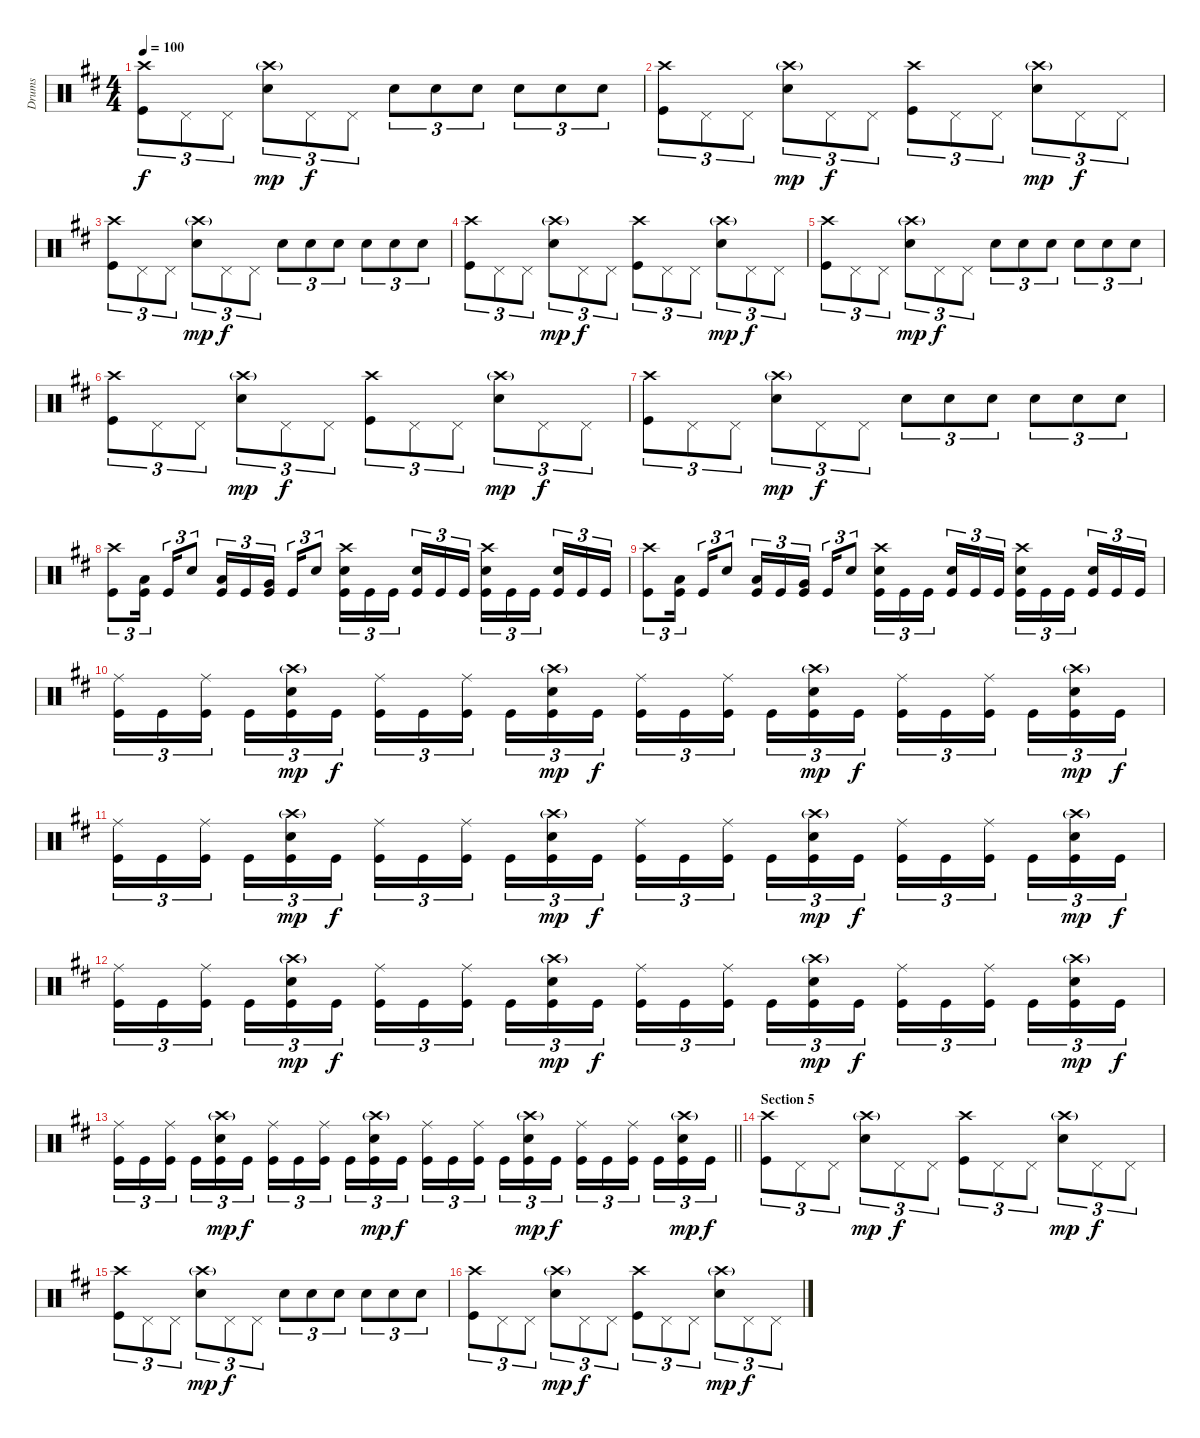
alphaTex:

\track ("Drums" "Drums") {instrument percussion}
\staff {score}
\articulation defaults
\ts (4 4)
\tempo 100
\clef neutral
\ks d
("Crash high (hit)" "Kick (hit)").8{tu (3 2) dy f} "Pedal Hi-Hat (hit)".8{tu (3 2)} "Pedal Hi-Hat (hit)".8{tu (3 2)} ("Crash high (hit)"{g} "Snare (hit) 2").8{tu (3 2) dy mp} "Pedal Hi-Hat (hit)".8{tu (3 2) dy f} "Pedal Hi-Hat (hit)".8{tu (3 2)} "Snare (hit) 2".8{tu (3 2)} "Snare (hit) 2".8{tu (3 2)} "Snare (hit) 2".8{tu (3 2)} "Snare (hit) 2".8{tu (3 2)} "Snare (hit) 2".8{tu (3 2)} "Snare (hit) 2".8{tu (3 2)} |
("Crash high (hit)" "Kick (hit)").8{tu (3 2)} "Pedal Hi-Hat (hit)".8{tu (3 2)} "Pedal Hi-Hat (hit)".8{tu (3 2)} ("Crash high (hit)"{g} "Snare (hit) 2").8{tu (3 2) dy mp} "Pedal Hi-Hat (hit)".8{tu (3 2) dy f} "Pedal Hi-Hat (hit)".8{tu (3 2)} ("Crash high (hit)" "Kick (hit)").8{tu (3 2)} "Pedal Hi-Hat (hit)".8{tu (3 2)} "Pedal Hi-Hat (hit)".8{tu (3 2)} ("Crash high (hit)"{g} "Snare (hit) 2").8{tu (3 2) dy mp} "Pedal Hi-Hat (hit)".8{tu (3 2) dy f} "Pedal Hi-Hat (hit)".8{tu (3 2)} |
("Crash high (hit)" "Kick (hit)").8{tu (3 2)} "Pedal Hi-Hat (hit)".8{tu (3 2)} "Pedal Hi-Hat (hit)".8{tu (3 2)} ("Crash high (hit)"{g} "Snare (hit) 2").8{tu (3 2) dy mp} "Pedal Hi-Hat (hit)".8{tu (3 2) dy f} "Pedal Hi-Hat (hit)".8{tu (3 2)} "Snare (hit) 2".8{tu (3 2)} "Snare (hit) 2".8{tu (3 2)} "Snare (hit) 2".8{tu (3 2)} "Snare (hit) 2".8{tu (3 2)} "Snare (hit) 2".8{tu (3 2)} "Snare (hit) 2".8{tu (3 2)} |
("Crash high (hit)" "Kick (hit)").8{tu (3 2)} "Pedal Hi-Hat (hit)".8{tu (3 2)} "Pedal Hi-Hat (hit)".8{tu (3 2)} ("Crash high (hit)"{g} "Snare (hit) 2").8{tu (3 2) dy mp} "Pedal Hi-Hat (hit)".8{tu (3 2) dy f} "Pedal Hi-Hat (hit)".8{tu (3 2)} ("Crash high (hit)" "Kick (hit)").8{tu (3 2)} "Pedal Hi-Hat (hit)".8{tu (3 2)} "Pedal Hi-Hat (hit)".8{tu (3 2)} ("Crash high (hit)"{g} "Snare (hit) 2").8{tu (3 2) dy mp} "Pedal Hi-Hat (hit)".8{tu (3 2) dy f} "Pedal Hi-Hat (hit)".8{tu (3 2)} |
("Crash high (hit)" "Kick (hit)").8{tu (3 2)} "Pedal Hi-Hat (hit)".8{tu (3 2)} "Pedal Hi-Hat (hit)".8{tu (3 2)} ("Crash high (hit)"{g} "Snare (hit) 2").8{tu (3 2) dy mp} "Pedal Hi-Hat (hit)".8{tu (3 2) dy f} "Pedal Hi-Hat (hit)".8{tu (3 2)} "Snare (hit) 2".8{tu (3 2)} "Snare (hit) 2".8{tu (3 2)} "Snare (hit) 2".8{tu (3 2)} "Snare (hit) 2".8{tu (3 2)} "Snare (hit) 2".8{tu (3 2)} "Snare (hit) 2".8{tu (3 2)} |
("Crash high (hit)" "Kick (hit)").8{tu (3 2)} "Pedal Hi-Hat (hit)".8{tu (3 2)} "Pedal Hi-Hat (hit)".8{tu (3 2)} ("Crash high (hit)"{g} "Snare (hit) 2").8{tu (3 2) dy mp} "Pedal Hi-Hat (hit)".8{tu (3 2) dy f} "Pedal Hi-Hat (hit)".8{tu (3 2)} ("Crash high (hit)" "Kick (hit)").8{tu (3 2)} "Pedal Hi-Hat (hit)".8{tu (3 2)} "Pedal Hi-Hat (hit)".8{tu (3 2)} ("Crash high (hit)"{g} "Snare (hit) 2").8{tu (3 2) dy mp} "Pedal Hi-Hat (hit)".8{tu (3 2) dy f} "Pedal Hi-Hat (hit)".8{tu (3 2)} |
("Crash high (hit)" "Kick (hit)").8{tu (3 2)} "Pedal Hi-Hat (hit)".8{tu (3 2)} "Pedal Hi-Hat (hit)".8{tu (3 2)} ("Crash high (hit)"{g} "Snare (hit) 2").8{tu (3 2) dy mp} "Pedal Hi-Hat (hit)".8{tu (3 2) dy f} "Pedal Hi-Hat (hit)".8{tu (3 2)} "Snare (hit) 2".8{tu (3 2)} "Snare (hit) 2".8{tu (3 2)} "Snare (hit) 2".8{tu (3 2)} "Snare (hit) 2".8{tu (3 2)} "Snare (hit) 2".8{tu (3 2)} "Snare (hit) 2".8{tu (3 2)} |
("Crash high (hit)" "Kick (hit)").8{tu (3 2)} ("Low Tom (hit)" "Kick (hit)").16{tu (3 2)} "Kick (hit)".16{tu (3 2)} "Snare (hit) 2".8{tu (3 2)} ("Low Tom (hit)" "Kick (hit)").16{tu (3 2)} "Kick (hit)".16{tu (3 2)} ("Very Low Tom (hit)" "Kick (hit)").16{tu (3 2)} "Kick (hit)".16{tu (3 2)} "Snare (hit) 2".8{tu (3 2)} ("Crash high (hit)" "Snare (hit) 2" "Kick (hit)").16{tu (3 2)} "Kick (hit)".16{tu (3 2)} "Kick (hit)".16{tu (3 2)} ("Snare (hit) 2" "Kick (hit)").16{tu (3 2)} "Kick (hit)".16{tu (3 2)} "Kick (hit)".16{tu (3 2)} ("Crash high (hit)" "Snare (hit) 2" "Kick (hit)").16{tu (3 2)} "Kick (hit)".16{tu (3 2)} "Kick (hit)".16{tu (3 2)} ("Snare (hit) 2" "Kick (hit)").16{tu (3 2)} "Kick (hit)".16{tu (3 2)} "Kick (hit)".16{tu (3 2)} |
("Crash high (hit)" "Kick (hit)").8{tu (3 2)} ("Low Tom (hit)" "Kick (hit)").16{tu (3 2)} "Kick (hit)".16{tu (3 2)} "Snare (hit) 2".8{tu (3 2)} ("Low Tom (hit)" "Kick (hit)").16{tu (3 2)} "Kick (hit)".16{tu (3 2)} ("Very Low Tom (hit)" "Kick (hit)").16{tu (3 2)} "Kick (hit)".16{tu (3 2)} "Snare (hit) 2".8{tu (3 2)} ("Crash high (hit)" "Snare (hit) 2" "Kick (hit)").16{tu (3 2)} "Kick (hit)".16{tu (3 2)} "Kick (hit)".16{tu (3 2)} ("Snare (hit) 2" "Kick (hit)").16{tu (3 2)} "Kick (hit)".16{tu (3 2)} "Kick (hit)".16{tu (3 2)} ("Crash high (hit)" "Snare (hit) 2" "Kick (hit)").16{tu (3 2)} "Kick (hit)".16{tu (3 2)} "Kick (hit)".16{tu (3 2)} ("Snare (hit) 2" "Kick (hit)").16{tu (3 2)} "Kick (hit)".16{tu (3 2)} "Kick (hit)".16{tu (3 2)} |
("Ride (middle)" "Kick (hit)").16{tu (3 2)} "Kick (hit)".16{tu (3 2)} ("Ride (middle)" "Kick (hit)").16{tu (3 2)} "Kick (hit)".16{tu (3 2)} ("Crash high (hit)"{g} "Snare (hit) 2" "Kick (hit)").16{tu (3 2) dy mp} "Kick (hit)".16{tu (3 2) dy f} ("Ride (middle)" "Kick (hit)").16{tu (3 2)} "Kick (hit)".16{tu (3 2)} ("Ride (middle)" "Kick (hit)").16{tu (3 2)} "Kick (hit)".16{tu (3 2)} ("Crash high (hit)"{g} "Snare (hit) 2" "Kick (hit)").16{tu (3 2) dy mp} "Kick (hit)".16{tu (3 2) dy f} ("Ride (middle)" "Kick (hit)").16{tu (3 2)} "Kick (hit)".16{tu (3 2)} ("Ride (middle)" "Kick (hit)").16{tu (3 2)} "Kick (hit)".16{tu (3 2)} ("Crash high (hit)"{g} "Snare (hit) 2" "Kick (hit)").16{tu (3 2) dy mp} "Kick (hit)".16{tu (3 2) dy f} ("Ride (middle)" "Kick (hit)").16{tu (3 2)} "Kick (hit)".16{tu (3 2)} ("Ride (middle)" "Kick (hit)").16{tu (3 2)} "Kick (hit)".16{tu (3 2)} ("Crash high (hit)"{g} "Snare (hit) 2" "Kick (hit)").16{tu (3 2) dy mp} "Kick (hit)".16{tu (3 2) dy f} |
("Ride (middle)" "Kick (hit)").16{tu (3 2)} "Kick (hit)".16{tu (3 2)} ("Ride (middle)" "Kick (hit)").16{tu (3 2)} "Kick (hit)".16{tu (3 2)} ("Crash high (hit)"{g} "Snare (hit) 2" "Kick (hit)").16{tu (3 2) dy mp} "Kick (hit)".16{tu (3 2) dy f} ("Ride (middle)" "Kick (hit)").16{tu (3 2)} "Kick (hit)".16{tu (3 2)} ("Ride (middle)" "Kick (hit)").16{tu (3 2)} "Kick (hit)".16{tu (3 2)} ("Crash high (hit)"{g} "Snare (hit) 2" "Kick (hit)").16{tu (3 2) dy mp} "Kick (hit)".16{tu (3 2) dy f} ("Ride (middle)" "Kick (hit)").16{tu (3 2)} "Kick (hit)".16{tu (3 2)} ("Ride (middle)" "Kick (hit)").16{tu (3 2)} "Kick (hit)".16{tu (3 2)} ("Crash high (hit)"{g} "Snare (hit) 2" "Kick (hit)").16{tu (3 2) dy mp} "Kick (hit)".16{tu (3 2) dy f} ("Ride (middle)" "Kick (hit)").16{tu (3 2)} "Kick (hit)".16{tu (3 2)} ("Ride (middle)" "Kick (hit)").16{tu (3 2)} "Kick (hit)".16{tu (3 2)} ("Crash high (hit)"{g} "Snare (hit) 2" "Kick (hit)").16{tu (3 2) dy mp} "Kick (hit)".16{tu (3 2) dy f} |
("Ride (middle)" "Kick (hit)").16{tu (3 2)} "Kick (hit)".16{tu (3 2)} ("Ride (middle)" "Kick (hit)").16{tu (3 2)} "Kick (hit)".16{tu (3 2)} ("Crash high (hit)"{g} "Snare (hit) 2" "Kick (hit)").16{tu (3 2) dy mp} "Kick (hit)".16{tu (3 2) dy f} ("Ride (middle)" "Kick (hit)").16{tu (3 2)} "Kick (hit)".16{tu (3 2)} ("Ride (middle)" "Kick (hit)").16{tu (3 2)} "Kick (hit)".16{tu (3 2)} ("Crash high (hit)"{g} "Snare (hit) 2" "Kick (hit)").16{tu (3 2) dy mp} "Kick (hit)".16{tu (3 2) dy f} ("Ride (middle)" "Kick (hit)").16{tu (3 2)} "Kick (hit)".16{tu (3 2)} ("Ride (middle)" "Kick (hit)").16{tu (3 2)} "Kick (hit)".16{tu (3 2)} ("Crash high (hit)"{g} "Snare (hit) 2" "Kick (hit)").16{tu (3 2) dy mp} "Kick (hit)".16{tu (3 2) dy f} ("Ride (middle)" "Kick (hit)").16{tu (3 2)} "Kick (hit)".16{tu (3 2)} ("Ride (middle)" "Kick (hit)").16{tu (3 2)} "Kick (hit)".16{tu (3 2)} ("Crash high (hit)"{g} "Snare (hit) 2" "Kick (hit)").16{tu (3 2) dy mp} "Kick (hit)".16{tu (3 2) dy f} |
\barLineRight lightlight
("Ride (middle)" "Kick (hit)").16{tu (3 2)} "Kick (hit)".16{tu (3 2)} ("Ride (middle)" "Kick (hit)").16{tu (3 2)} "Kick (hit)".16{tu (3 2)} ("Crash high (hit)"{g} "Snare (hit) 2" "Kick (hit)").16{tu (3 2) dy mp} "Kick (hit)".16{tu (3 2) dy f} ("Ride (middle)" "Kick (hit)").16{tu (3 2)} "Kick (hit)".16{tu (3 2)} ("Ride (middle)" "Kick (hit)").16{tu (3 2)} "Kick (hit)".16{tu (3 2)} ("Crash high (hit)"{g} "Snare (hit) 2" "Kick (hit)").16{tu (3 2) dy mp} "Kick (hit)".16{tu (3 2) dy f} ("Ride (middle)" "Kick (hit)").16{tu (3 2)} "Kick (hit)".16{tu (3 2)} ("Ride (middle)" "Kick (hit)").16{tu (3 2)} "Kick (hit)".16{tu (3 2)} ("Crash high (hit)"{g} "Snare (hit) 2" "Kick (hit)").16{tu (3 2) dy mp} "Kick (hit)".16{tu (3 2) dy f} ("Ride (middle)" "Kick (hit)").16{tu (3 2)} "Kick (hit)".16{tu (3 2)} ("Ride (middle)" "Kick (hit)").16{tu (3 2)} "Kick (hit)".16{tu (3 2)} ("Crash high (hit)"{g} "Snare (hit) 2" "Kick (hit)").16{tu (3 2) dy mp} "Kick (hit)".16{tu (3 2) dy f} |
\section ("" "Section 5")
("Crash high (hit)" "Kick (hit)").8{tu (3 2)} "Pedal Hi-Hat (hit)".8{tu (3 2)} "Pedal Hi-Hat (hit)".8{tu (3 2)} ("Crash high (hit)"{g} "Snare (hit) 2").8{tu (3 2) dy mp} "Pedal Hi-Hat (hit)".8{tu (3 2) dy f} "Pedal Hi-Hat (hit)".8{tu (3 2)} ("Crash high (hit)" "Kick (hit)").8{tu (3 2)} "Pedal Hi-Hat (hit)".8{tu (3 2)} "Pedal Hi-Hat (hit)".8{tu (3 2)} ("Crash high (hit)"{g} "Snare (hit) 2").8{tu (3 2) dy mp} "Pedal Hi-Hat (hit)".8{tu (3 2) dy f} "Pedal Hi-Hat (hit)".8{tu (3 2)} |
("Crash high (hit)" "Kick (hit)").8{tu (3 2)} "Pedal Hi-Hat (hit)".8{tu (3 2)} "Pedal Hi-Hat (hit)".8{tu (3 2)} ("Crash high (hit)"{g} "Snare (hit) 2").8{tu (3 2) dy mp} "Pedal Hi-Hat (hit)".8{tu (3 2) dy f} "Pedal Hi-Hat (hit)".8{tu (3 2)} "Snare (hit) 2".8{tu (3 2)} "Snare (hit) 2".8{tu (3 2)} "Snare (hit) 2".8{tu (3 2)} "Snare (hit) 2".8{tu (3 2)} "Snare (hit) 2".8{tu (3 2)} "Snare (hit) 2".8{tu (3 2)} |
("Crash high (hit)" "Kick (hit)").8{tu (3 2)} "Pedal Hi-Hat (hit)".8{tu (3 2)} "Pedal Hi-Hat (hit)".8{tu (3 2)} ("Crash high (hit)"{g} "Snare (hit) 2").8{tu (3 2) dy mp} "Pedal Hi-Hat (hit)".8{tu (3 2) dy f} "Pedal Hi-Hat (hit)".8{tu (3 2)} ("Crash high (hit)" "Kick (hit)").8{tu (3 2)} "Pedal Hi-Hat (hit)".8{tu (3 2)} "Pedal Hi-Hat (hit)".8{tu (3 2)} ("Crash high (hit)"{g} "Snare (hit) 2").8{tu (3 2) dy mp} "Pedal Hi-Hat (hit)".8{tu (3 2) dy f} "Pedal Hi-Hat (hit)".8{tu (3 2)}
